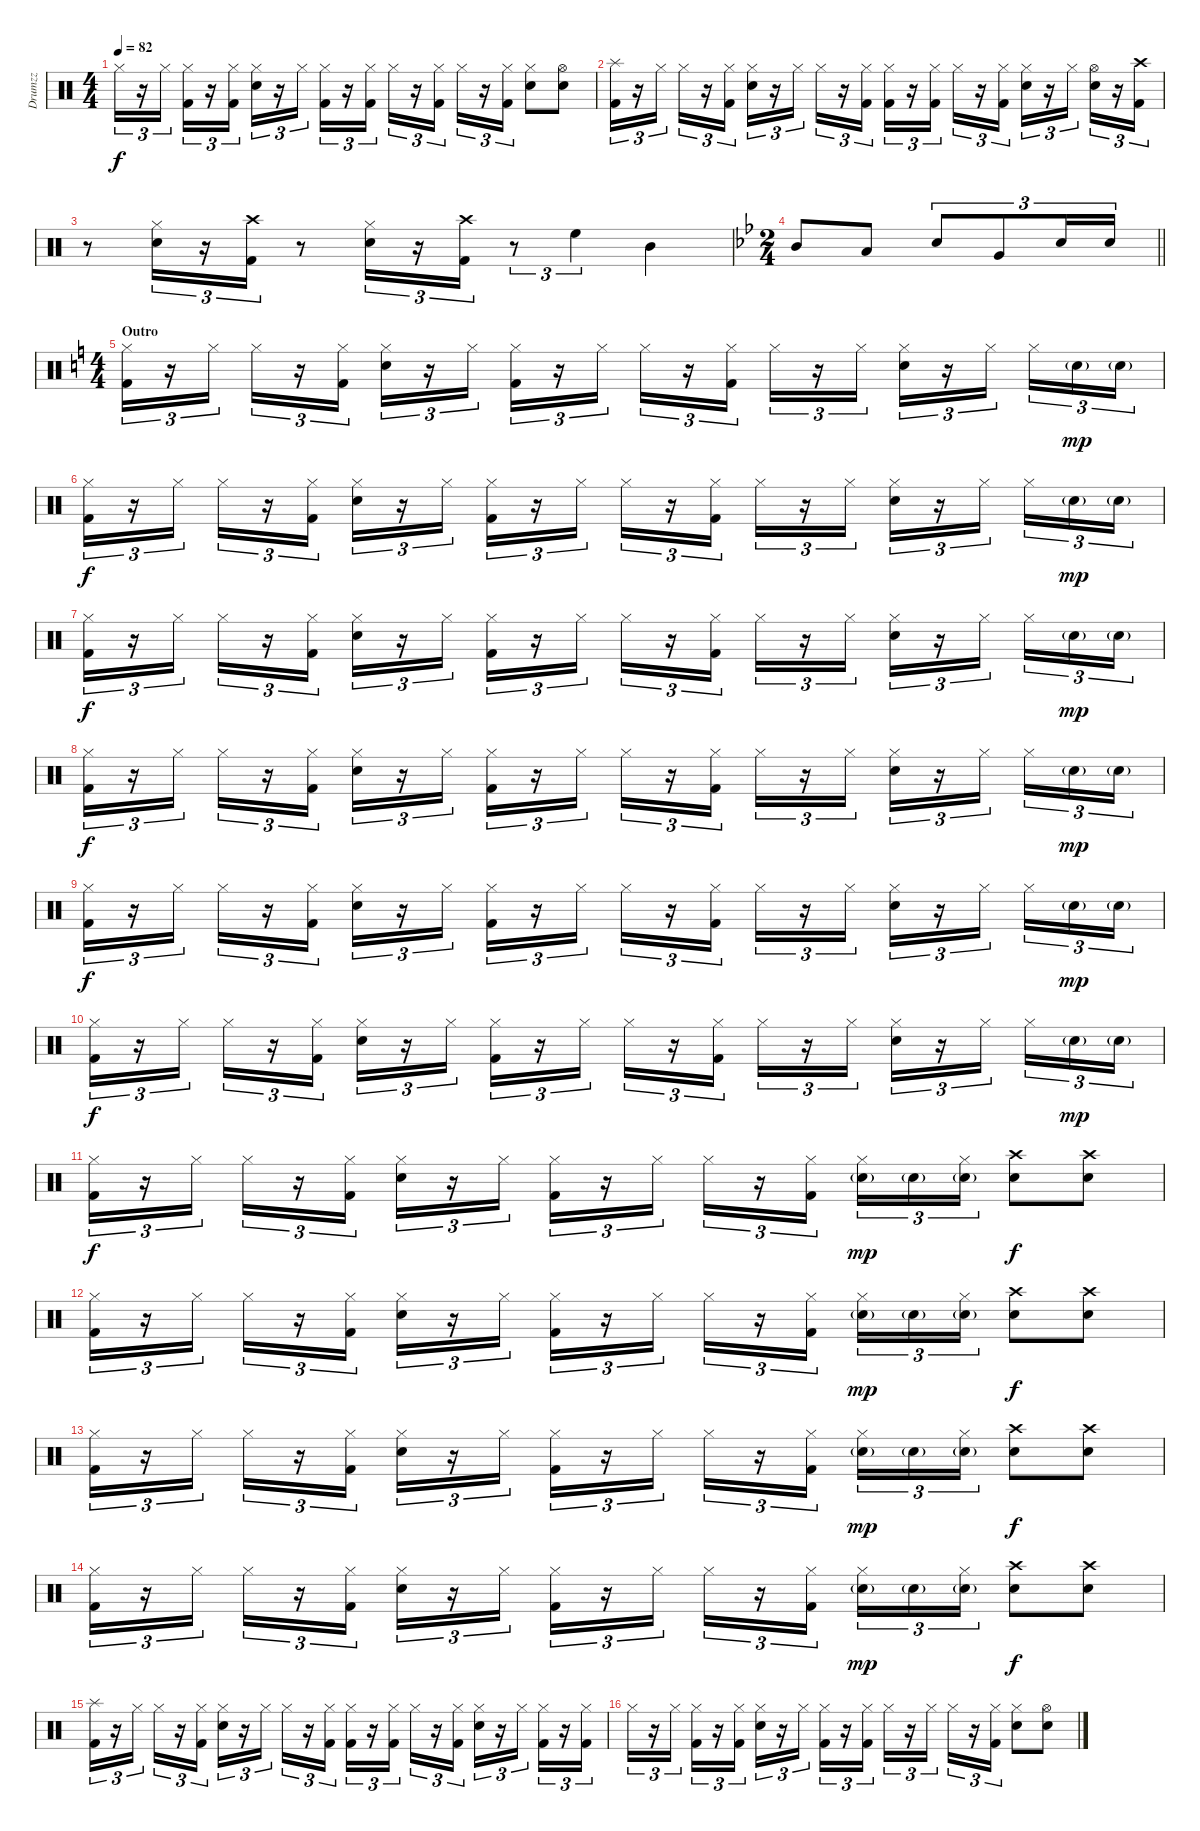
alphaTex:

\track ("Drumzz" "Drumzz") {instrument percussion}
\staff {score}
\articulation defaults
\ts (4 4)
\tempo 82
\clef neutral
\ks c "Hi-Hat (closed)".16{tu (3 2) dy f}
r.16{tu (3 2)} "Hi-Hat (closed)".16{tu (3 2)} ("Hi-Hat (closed)" "Kick (hit) 2").16{tu (3 2)} r.16{tu (3 2)} ("Hi-Hat (closed)" "Kick (hit) 2").16{tu (3 2)} ("Hi-Hat (closed)" "Snare (hit) 2").16{tu (3 2)} r.16{tu (3 2)} "Hi-Hat (closed)".16{tu (3 2)} ("Hi-Hat (closed)" "Kick (hit) 2").16{tu (3 2)} r.16{tu (3 2)} ("Hi-Hat (closed)" "Kick (hit) 2").16{tu (3 2)} "Hi-Hat (closed)".16{tu (3 2)} r.16{tu (3 2)} ("Hi-Hat (closed)" "Kick (hit) 2").16{tu (3 2)} "Hi-Hat (closed)".16{tu (3 2)} r.16{tu (3 2)} ("Hi-Hat (closed)" "Kick (hit) 2").16{tu (3 2)} ("Hi-Hat (closed)" "Snare (hit) 2").8 ("Hi-Hat (open)" "Snare (hit) 2").8 |
("Splash (hit)" "Kick (hit) 2").16{tu (3 2)} r.16{tu (3 2)} "Hi-Hat (closed)".16{tu (3 2)} "Hi-Hat (closed)".16{tu (3 2)} r.16{tu (3 2)} ("Hi-Hat (closed)" "Kick (hit) 2").16{tu (3 2)} ("Hi-Hat (closed)" "Snare (hit) 2").16{tu (3 2)} r.16{tu (3 2)} "Hi-Hat (closed)".16{tu (3 2)} "Hi-Hat (closed)".16{tu (3 2)} r.16{tu (3 2)} ("Hi-Hat (closed)" "Kick (hit) 2").16{tu (3 2)} ("Hi-Hat (closed)" "Kick (hit) 2").16{tu (3 2)} r.16{tu (3 2)} ("Hi-Hat (closed)" "Kick (hit) 2").16{tu (3 2)} "Hi-Hat (closed)".16{tu (3 2)} r.16{tu (3 2)} ("Hi-Hat (closed)" "Kick (hit) 2").16{tu (3 2)} ("Hi-Hat (closed)" "Snare (hit) 2").16{tu (3 2)} r.16{tu (3 2)} "Hi-Hat (closed)".16{tu (3 2)} ("Hi-Hat (open)" "Snare (hit) 2").16{tu (3 2)} r.16{tu (3 2)} ("Crash high (hit)" "Kick (hit) 2").16{tu (3 2)} |
r.8 ("Hi-Hat (closed)" "Snare (hit) 2").16{tu (3 2)} r.16{tu (3 2)} ("Crash high (hit)" "Kick (hit) 2").16{tu (3 2)} r.8 ("Hi-Hat (closed)" "Snare (hit) 2").16{tu (3 2)} r.16{tu (3 2)} ("Crash high (hit)" "Kick (hit) 2").16{tu (3 2)} r.8{tu (3 2)} "High Floor Tom (hit)".4{tu (3 2)} "Mid Tom (hit)".4 |
\ts (2 4)
\barLineRight lightlight
\ks bb "Mid Tom (hit)".8 "Low Floor Tom (hit)".8 "Snare (hit) 2".8{tu (3 2)} "Very Low Tom (hit)".8{tu (3 2)} "Snare (hit) 2".16{tu (3 2)} "Snare (hit) 2".16{tu (3 2)}
|
\ts (4 4)
\section ("" "Outro")
\ks c
("Hi-Hat (closed)" "Kick (hit) 2").16{tu (3 2)} r.16{tu (3 2)} "Hi-Hat (closed)".16{tu (3 2)} "Hi-Hat (closed)".16{tu (3 2)} r.16{tu (3 2)} ("Hi-Hat (closed)" "Kick (hit) 2").16{tu (3 2)} ("Hi-Hat (closed)" "Snare (hit) 2").16{tu (3 2)} r.16{tu (3 2)} "Hi-Hat (closed)".16{tu (3 2)} ("Hi-Hat (closed)" "Kick (hit) 2").16{tu (3 2)} r.16{tu (3 2)} "Hi-Hat (closed)".16{tu (3 2)} "Hi-Hat (closed)".16{tu (3 2)} r.16{tu (3 2)} ("Hi-Hat (closed)" "Kick (hit) 2").16{tu (3 2)} "Hi-Hat (closed)".16{tu (3 2)} r.16{tu (3 2)} "Hi-Hat (closed)".16{tu (3 2)} ("Hi-Hat (closed)" "Snare (hit) 2").16{tu (3 2)} r.16{tu (3 2)} "Hi-Hat (closed)".16{tu (3 2) beam splitsecondary} "Hi-Hat (closed)".16{tu (3 2)} "Snare (hit) 2"{g}.16{tu (3 2) dy mp} "Snare (hit) 2"{g}.16{tu (3 2)} |
("Hi-Hat (closed)" "Kick (hit) 2").16{tu (3 2) dy f} r.16{tu (3 2)} "Hi-Hat (closed)".16{tu (3 2)} "Hi-Hat (closed)".16{tu (3 2)} r.16{tu (3 2)} ("Hi-Hat (closed)" "Kick (hit) 2").16{tu (3 2)} ("Hi-Hat (closed)" "Snare (hit) 2").16{tu (3 2)} r.16{tu (3 2)} "Hi-Hat (closed)".16{tu (3 2)} ("Hi-Hat (closed)" "Kick (hit) 2").16{tu (3 2)} r.16{tu (3 2)} "Hi-Hat (closed)".16{tu (3 2)} "Hi-Hat (closed)".16{tu (3 2)} r.16{tu (3 2)} ("Hi-Hat (closed)" "Kick (hit) 2").16{tu (3 2)} "Hi-Hat (closed)".16{tu (3 2)} r.16{tu (3 2)} "Hi-Hat (closed)".16{tu (3 2)} ("Hi-Hat (closed)" "Snare (hit) 2").16{tu (3 2)} r.16{tu (3 2)} "Hi-Hat (closed)".16{tu (3 2) beam splitsecondary} "Hi-Hat (closed)".16{tu (3 2)} "Snare (hit) 2"{g}.16{tu (3 2) dy mp} "Snare (hit) 2"{g}.16{tu (3 2)} |
("Hi-Hat (closed)" "Kick (hit) 2").16{tu (3 2) dy f} r.16{tu (3 2)} "Hi-Hat (closed)".16{tu (3 2)} "Hi-Hat (closed)".16{tu (3 2)} r.16{tu (3 2)} ("Hi-Hat (closed)" "Kick (hit) 2").16{tu (3 2)} ("Hi-Hat (closed)" "Snare (hit) 2").16{tu (3 2)} r.16{tu (3 2)} "Hi-Hat (closed)".16{tu (3 2)} ("Hi-Hat (closed)" "Kick (hit) 2").16{tu (3 2)} r.16{tu (3 2)} "Hi-Hat (closed)".16{tu (3 2)} "Hi-Hat (closed)".16{tu (3 2)} r.16{tu (3 2)} ("Hi-Hat (closed)" "Kick (hit) 2").16{tu (3 2)} "Hi-Hat (closed)".16{tu (3 2)} r.16{tu (3 2)} "Hi-Hat (closed)".16{tu (3 2)} ("Hi-Hat (closed)" "Snare (hit) 2").16{tu (3 2)} r.16{tu (3 2)} "Hi-Hat (closed)".16{tu (3 2) beam splitsecondary} "Hi-Hat (closed)".16{tu (3 2)} "Snare (hit) 2"{g}.16{tu (3 2) dy mp} "Snare (hit) 2"{g}.16{tu (3 2)} |
("Hi-Hat (closed)" "Kick (hit) 2").16{tu (3 2) dy f} r.16{tu (3 2)} "Hi-Hat (closed)".16{tu (3 2)} "Hi-Hat (closed)".16{tu (3 2)} r.16{tu (3 2)} ("Hi-Hat (closed)" "Kick (hit) 2").16{tu (3 2)} ("Hi-Hat (closed)" "Snare (hit) 2").16{tu (3 2)} r.16{tu (3 2)} "Hi-Hat (closed)".16{tu (3 2)} ("Hi-Hat (closed)" "Kick (hit) 2").16{tu (3 2)} r.16{tu (3 2)} "Hi-Hat (closed)".16{tu (3 2)} "Hi-Hat (closed)".16{tu (3 2)} r.16{tu (3 2)} ("Hi-Hat (closed)" "Kick (hit) 2").16{tu (3 2)} "Hi-Hat (closed)".16{tu (3 2)} r.16{tu (3 2)} "Hi-Hat (closed)".16{tu (3 2)} ("Hi-Hat (closed)" "Snare (hit) 2").16{tu (3 2)} r.16{tu (3 2)} "Hi-Hat (closed)".16{tu (3 2) beam splitsecondary} "Hi-Hat (closed)".16{tu (3 2)} "Snare (hit) 2"{g}.16{tu (3 2) dy mp} "Snare (hit) 2"{g}.16{tu (3 2)} |
("Hi-Hat (closed)" "Kick (hit) 2").16{tu (3 2) dy f} r.16{tu (3 2)} "Hi-Hat (closed)".16{tu (3 2)} "Hi-Hat (closed)".16{tu (3 2)} r.16{tu (3 2)} ("Hi-Hat (closed)" "Kick (hit) 2").16{tu (3 2)} ("Hi-Hat (closed)" "Snare (hit) 2").16{tu (3 2)} r.16{tu (3 2)} "Hi-Hat (closed)".16{tu (3 2)} ("Hi-Hat (closed)" "Kick (hit) 2").16{tu (3 2)} r.16{tu (3 2)} "Hi-Hat (closed)".16{tu (3 2)} "Hi-Hat (closed)".16{tu (3 2)} r.16{tu (3 2)} ("Hi-Hat (closed)" "Kick (hit) 2").16{tu (3 2)} "Hi-Hat (closed)".16{tu (3 2)} r.16{tu (3 2)} "Hi-Hat (closed)".16{tu (3 2)} ("Hi-Hat (closed)" "Snare (hit) 2").16{tu (3 2)} r.16{tu (3 2)} "Hi-Hat (closed)".16{tu (3 2) beam splitsecondary} "Hi-Hat (closed)".16{tu (3 2)} "Snare (hit) 2"{g}.16{tu (3 2) dy mp} "Snare (hit) 2"{g}.16{tu (3 2)} |
("Hi-Hat (closed)" "Kick (hit) 2").16{tu (3 2) dy f} r.16{tu (3 2)} "Hi-Hat (closed)".16{tu (3 2)} "Hi-Hat (closed)".16{tu (3 2)} r.16{tu (3 2)} ("Hi-Hat (closed)" "Kick (hit) 2").16{tu (3 2)} ("Hi-Hat (closed)" "Snare (hit) 2").16{tu (3 2)} r.16{tu (3 2)} "Hi-Hat (closed)".16{tu (3 2)} ("Hi-Hat (closed)" "Kick (hit) 2").16{tu (3 2)} r.16{tu (3 2)} "Hi-Hat (closed)".16{tu (3 2)} "Hi-Hat (closed)".16{tu (3 2)} r.16{tu (3 2)} ("Hi-Hat (closed)" "Kick (hit) 2").16{tu (3 2)} "Hi-Hat (closed)".16{tu (3 2)} r.16{tu (3 2)} "Hi-Hat (closed)".16{tu (3 2)} ("Hi-Hat (closed)" "Snare (hit) 2").16{tu (3 2)} r.16{tu (3 2)} "Hi-Hat (closed)".16{tu (3 2) beam splitsecondary} "Hi-Hat (closed)".16{tu (3 2)} "Snare (hit) 2"{g}.16{tu (3 2) dy mp} "Snare (hit) 2"{g}.16{tu (3 2)} |
("Hi-Hat (closed)" "Kick (hit) 2").16{tu (3 2) dy f} r.16{tu (3 2)} "Hi-Hat (closed)".16{tu (3 2)} "Hi-Hat (closed)".16{tu (3 2)} r.16{tu (3 2)} ("Hi-Hat (closed)" "Kick (hit) 2").16{tu (3 2)} ("Hi-Hat (closed)" "Snare (hit) 2").16{tu (3 2)} r.16{tu (3 2)} "Hi-Hat (closed)".16{tu (3 2)} ("Hi-Hat (closed)" "Kick (hit) 2").16{tu (3 2)} r.16{tu (3 2)} "Hi-Hat (closed)".16{tu (3 2)} "Hi-Hat (closed)".16{tu (3 2)} r.16{tu (3 2)} ("Hi-Hat (closed)" "Kick (hit) 2").16{tu (3 2) beam splitsecondary} ("Hi-Hat (closed)" "Snare (hit) 2"{g}).16{tu (3 2) dy mp} "Snare (hit) 2"{g}.16{tu (3 2)} ("Hi-Hat (closed)" "Snare (hit) 2"{g}).16{tu (3 2)} ("Crash high (hit)" "Snare (hit) 2").8{dy f} ("Crash high (hit)" "Snare (hit) 2").8 |
("Hi-Hat (closed)" "Kick (hit) 2").16{tu (3 2)} r.16{tu (3 2)} "Hi-Hat (closed)".16{tu (3 2)} "Hi-Hat (closed)".16{tu (3 2)} r.16{tu (3 2)} ("Hi-Hat (closed)" "Kick (hit) 2").16{tu (3 2)} ("Hi-Hat (closed)" "Snare (hit) 2").16{tu (3 2)} r.16{tu (3 2)} "Hi-Hat (closed)".16{tu (3 2)} ("Hi-Hat (closed)" "Kick (hit) 2").16{tu (3 2)} r.16{tu (3 2)} "Hi-Hat (closed)".16{tu (3 2)} "Hi-Hat (closed)".16{tu (3 2)} r.16{tu (3 2)} ("Hi-Hat (closed)" "Kick (hit) 2").16{tu (3 2) beam splitsecondary} ("Hi-Hat (closed)" "Snare (hit) 2"{g}).16{tu (3 2) dy mp} "Snare (hit) 2"{g}.16{tu (3 2)} ("Hi-Hat (closed)" "Snare (hit) 2"{g}).16{tu (3 2)} ("Crash high (hit)" "Snare (hit) 2").8{dy f} ("Crash high (hit)" "Snare (hit) 2").8 |
("Hi-Hat (closed)" "Kick (hit) 2").16{tu (3 2)} r.16{tu (3 2)} "Hi-Hat (closed)".16{tu (3 2)} "Hi-Hat (closed)".16{tu (3 2)} r.16{tu (3 2)} ("Hi-Hat (closed)" "Kick (hit) 2").16{tu (3 2)} ("Hi-Hat (closed)" "Snare (hit) 2").16{tu (3 2)} r.16{tu (3 2)} "Hi-Hat (closed)".16{tu (3 2)} ("Hi-Hat (closed)" "Kick (hit) 2").16{tu (3 2)} r.16{tu (3 2)} "Hi-Hat (closed)".16{tu (3 2)} "Hi-Hat (closed)".16{tu (3 2)} r.16{tu (3 2)} ("Hi-Hat (closed)" "Kick (hit) 2").16{tu (3 2) beam splitsecondary} ("Hi-Hat (closed)" "Snare (hit) 2"{g}).16{tu (3 2) dy mp} "Snare (hit) 2"{g}.16{tu (3 2)} ("Hi-Hat (closed)" "Snare (hit) 2"{g}).16{tu (3 2)} ("Crash high (hit)" "Snare (hit) 2").8{dy f} ("Crash high (hit)" "Snare (hit) 2").8 |
("Hi-Hat (closed)" "Kick (hit) 2").16{tu (3 2)} r.16{tu (3 2)} "Hi-Hat (closed)".16{tu (3 2)} "Hi-Hat (closed)".16{tu (3 2)} r.16{tu (3 2)} ("Hi-Hat (closed)" "Kick (hit) 2").16{tu (3 2)} ("Hi-Hat (closed)" "Snare (hit) 2").16{tu (3 2)} r.16{tu (3 2)} "Hi-Hat (closed)".16{tu (3 2)} ("Hi-Hat (closed)" "Kick (hit) 2").16{tu (3 2)} r.16{tu (3 2)} "Hi-Hat (closed)".16{tu (3 2)} "Hi-Hat (closed)".16{tu (3 2)} r.16{tu (3 2)} ("Hi-Hat (closed)" "Kick (hit) 2").16{tu (3 2) beam splitsecondary} ("Hi-Hat (closed)" "Snare (hit) 2"{g}).16{tu (3 2) dy mp} "Snare (hit) 2"{g}.16{tu (3 2)} ("Hi-Hat (closed)" "Snare (hit) 2"{g}).16{tu (3 2)} ("Crash high (hit)" "Snare (hit) 2").8{dy f} ("Crash high (hit)" "Snare (hit) 2").8 |
("Splash (hit)" "Kick (hit) 2").16{tu (3 2)} r.16{tu (3 2)} "Hi-Hat (closed)".16{tu (3 2)} "Hi-Hat (closed)".16{tu (3 2)} r.16{tu (3 2)} ("Hi-Hat (closed)" "Kick (hit) 2").16{tu (3 2)} ("Hi-Hat (closed)" "Snare (hit) 2").16{tu (3 2)} r.16{tu (3 2)} "Hi-Hat (closed)".16{tu (3 2)} "Hi-Hat (closed)".16{tu (3 2)} r.16{tu (3 2)} ("Hi-Hat (closed)" "Kick (hit) 2").16{tu (3 2)} ("Hi-Hat (closed)" "Kick (hit) 2").16{tu (3 2)} r.16{tu (3 2)} ("Hi-Hat (closed)" "Kick (hit) 2").16{tu (3 2)} "Hi-Hat (closed)".16{tu (3 2)} r.16{tu (3 2)} ("Hi-Hat (closed)" "Kick (hit) 2").16{tu (3 2)} ("Hi-Hat (closed)" "Snare (hit) 2").16{tu (3 2)} r.16{tu (3 2)} "Hi-Hat (closed)".16{tu (3 2)} ("Hi-Hat (closed)" "Kick (hit) 2").16{tu (3 2)} r.16{tu (3 2)} ("Hi-Hat (closed)" "Kick (hit) 2").16{tu (3 2)} |
"Hi-Hat (closed)".16{tu (3 2)} r.16{tu (3 2)} "Hi-Hat (closed)".16{tu (3 2)} ("Hi-Hat (closed)" "Kick (hit) 2").16{tu (3 2)} r.16{tu (3 2)} ("Hi-Hat (closed)" "Kick (hit) 2").16{tu (3 2)} ("Hi-Hat (closed)" "Snare (hit) 2").16{tu (3 2)} r.16{tu (3 2)} "Hi-Hat (closed)".16{tu (3 2)} ("Hi-Hat (closed)" "Kick (hit) 2").16{tu (3 2)} r.16{tu (3 2)} ("Hi-Hat (closed)" "Kick (hit) 2").16{tu (3 2)} "Hi-Hat (closed)".16{tu (3 2)} r.16{tu (3 2)} "Hi-Hat (closed)".16{tu (3 2)} "Hi-Hat (closed)".16{tu (3 2)} r.16{tu (3 2)} ("Hi-Hat (closed)" "Kick (hit) 2").16{tu (3 2)} ("Hi-Hat (closed)" "Snare (hit) 2").8 ("Hi-Hat (open)" "Snare (hit) 2").8
